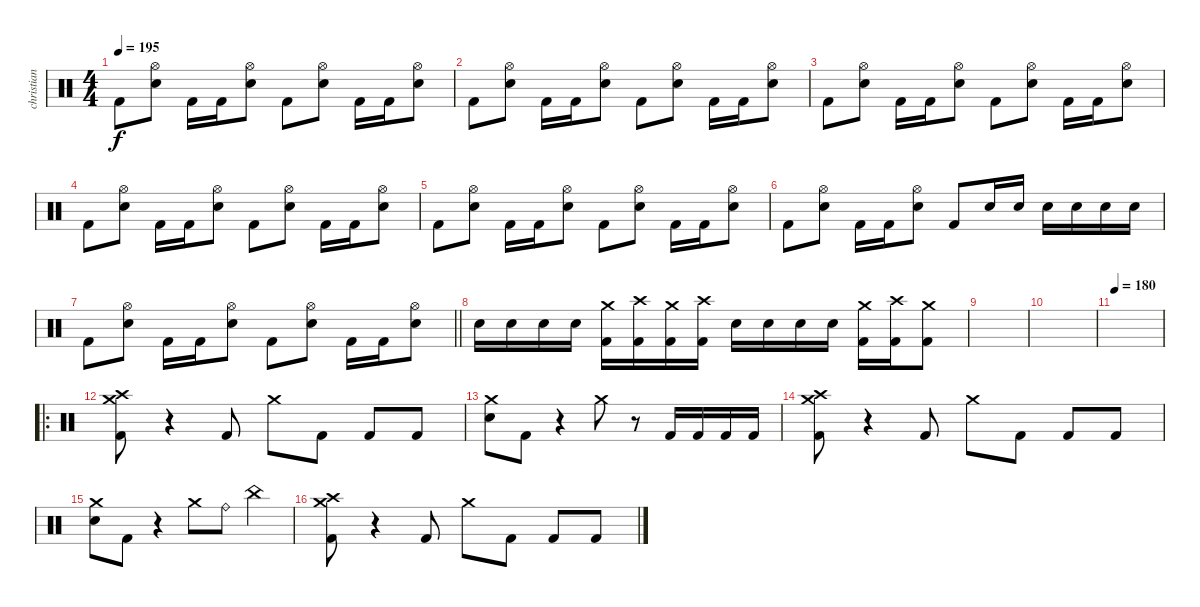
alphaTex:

\track ("christian" "christian") {instrument percussion}
\staff {score}
\articulation defaults
\ts (4 4)
\tempo 195
\clef neutral
\ks c "Kick (hit) 2".8{dy f}
("Hi-Hat (open)" "Electric Snare (hit)").8 "Kick (hit) 2".16 "Kick (hit) 2".16 ("Hi-Hat (open)" "Electric Snare (hit)").8 "Kick (hit) 2".8 ("Hi-Hat (open)" "Electric Snare (hit)").8 "Kick (hit) 2".16 "Kick (hit) 2".16 ("Hi-Hat (open)" "Electric Snare (hit)").8 |
"Kick (hit) 2".8 ("Hi-Hat (open)" "Electric Snare (hit)").8 "Kick (hit) 2".16 "Kick (hit) 2".16 ("Hi-Hat (open)" "Electric Snare (hit)").8 "Kick (hit) 2".8 ("Hi-Hat (open)" "Electric Snare (hit)").8 "Kick (hit) 2".16 "Kick (hit) 2".16 ("Hi-Hat (open)" "Electric Snare (hit)").8 |
"Kick (hit) 2".8 ("Hi-Hat (open)" "Electric Snare (hit)").8 "Kick (hit) 2".16 "Kick (hit) 2".16 ("Hi-Hat (open)" "Electric Snare (hit)").8 "Kick (hit) 2".8 ("Hi-Hat (open)" "Electric Snare (hit)").8 "Kick (hit) 2".16 "Kick (hit) 2".16 ("Hi-Hat (open)" "Electric Snare (hit)").8 |
"Kick (hit) 2".8 ("Hi-Hat (open)" "Electric Snare (hit)").8 "Kick (hit) 2".16 "Kick (hit) 2".16 ("Hi-Hat (open)" "Electric Snare (hit)").8 "Kick (hit) 2".8 ("Hi-Hat (open)" "Electric Snare (hit)").8 "Kick (hit) 2".16 "Kick (hit) 2".16 ("Hi-Hat (open)" "Electric Snare (hit)").8 |
"Kick (hit) 2".8 ("Hi-Hat (open)" "Electric Snare (hit)").8 "Kick (hit) 2".16 "Kick (hit) 2".16 ("Hi-Hat (open)" "Electric Snare (hit)").8 "Kick (hit) 2".8 ("Hi-Hat (open)" "Electric Snare (hit)").8 "Kick (hit) 2".16 "Kick (hit) 2".16 ("Hi-Hat (open)" "Electric Snare (hit)").8 |
"Kick (hit) 2".8 ("Hi-Hat (open)" "Electric Snare (hit)").8 "Kick (hit) 2".16 "Kick (hit) 2".16 ("Hi-Hat (open)" "Electric Snare (hit)").8 "Kick (hit) 2".8 "Electric Snare (hit)".16 "Electric Snare (hit)".16 "Electric Snare (hit)".16 "Electric Snare (hit)".16 "Electric Snare (hit)".16 "Electric Snare (hit)".16 |
\barLineRight lightlight "Kick (hit) 2".8
("Hi-Hat (open)" "Electric Snare (hit)").8 "Kick (hit) 2".16 "Kick (hit) 2".16 ("Hi-Hat (open)" "Electric Snare (hit)").8 "Kick (hit) 2".8 ("Hi-Hat (open)" "Electric Snare (hit)").8 "Kick (hit) 2".16 "Kick (hit) 2".16 ("Hi-Hat (open)" "Electric Snare (hit)").8 |
"Electric Snare (hit)".16 "Electric Snare (hit)".16 "Electric Snare (hit)".16 "Electric Snare (hit)".16 ("Crash medium (hit)" "Kick (hit) 2").16 ("Crash high (hit)" "Kick (hit) 2").16 ("Crash medium (hit)" "Kick (hit) 2").16 ("Crash high (hit)" "Kick (hit) 2").16 "Electric Snare (hit)".16 "Electric Snare (hit)".16 "Electric Snare (hit)".16 "Electric Snare (hit)".16 ("Crash medium (hit)" "Kick (hit) 2").16 ("Crash high (hit)" "Kick (hit) 2").16 ("Crash medium (hit)" "Kick (hit) 2").8 |
|
|
\tempo 180
|
\ro
("Crash medium (hit)" "Crash high (hit)" "Kick (hit) 2").8 r.4 "Kick (hit) 2".8 "Crash medium (hit)".8 "Kick (hit) 2".8 "Kick (hit) 2".8 "Kick (hit) 2".8 |
("Crash medium (hit)" "Electric Snare (hit)").8 "Kick (hit) 2".8 r.4 "Crash medium (hit)".8 r.8 "Kick (hit) 2".16 "Kick (hit) 2".16 "Kick (hit) 2".16 "Kick (hit) 2".16 |
("Crash medium (hit)" "Crash high (hit)" "Kick (hit) 2").8 r.4 "Kick (hit) 2".8 "Crash medium (hit)".8 "Kick (hit) 2".8 "Kick (hit) 2".8 "Kick (hit) 2".8 |
("Crash medium (hit)" "Electric Snare (hit)").8 "Kick (hit) 2".8 r.4 "Crash medium (hit)".8 "Ride (bell)".8 "China (hit)".4 |
("Crash medium (hit)" "Crash high (hit)" "Kick (hit) 2").8 r.4 "Kick (hit) 2".8 "Crash medium (hit)".8 "Kick (hit) 2".8 "Kick (hit) 2".8 "Kick (hit) 2".8
